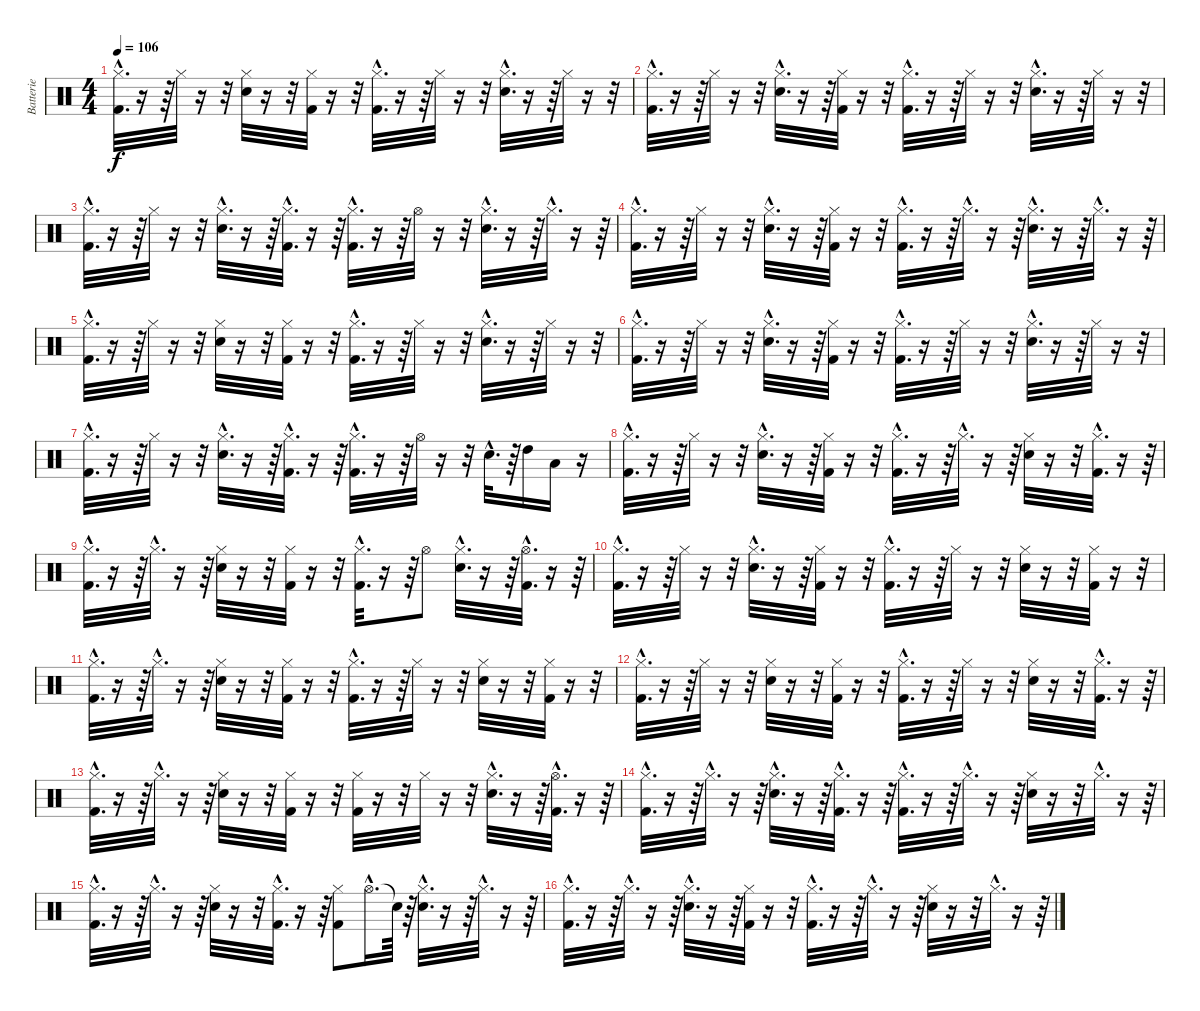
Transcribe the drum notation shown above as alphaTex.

\track ("Batterie" "Batterie") {instrument percussion}
\staff {score}
\articulation defaults
\ts (4 4)
\tempo 106
\clef neutral
\ks c
("Hi-Hat (closed)"{hac} "Kick (hit) 2"{hac}).32{d dy f} r.16 r.64 "Hi-Hat (closed)".32 r.16 r.32 ("Hi-Hat (closed)" "Snare (hit) 2").32 r.16 r.32 ("Hi-Hat (closed)" "Kick (hit) 2").32 r.16 r.32 ("Hi-Hat (closed)"{hac} "Kick (hit) 2"{hac}).32{d} r.16 r.64 "Hi-Hat (closed)".32 r.16 r.32 ("Hi-Hat (closed)"{hac} "Snare (hit) 2"{hac}).32{d} r.16 r.64 "Hi-Hat (closed)".32 r.16 r.32 |
("Hi-Hat (closed)"{hac} "Kick (hit) 2"{hac}).32{d} r.16 r.64 "Hi-Hat (closed)".32 r.16 r.32 ("Hi-Hat (closed)"{hac} "Snare (hit) 2"{hac}).32{d} r.16 r.64 ("Hi-Hat (closed)" "Kick (hit) 2").32 r.16 r.32 ("Hi-Hat (closed)"{hac} "Kick (hit) 2"{hac}).32{d} r.16 r.64 "Hi-Hat (closed)".32 r.16 r.32 ("Hi-Hat (closed)"{hac} "Snare (hit) 2"{hac}).32{d} r.16 r.64 "Hi-Hat (closed)".32 r.16 r.32 |
("Hi-Hat (closed)"{hac} "Kick (hit) 2"{hac}).32{d} r.16 r.64 "Hi-Hat (closed)".32 r.16 r.32 ("Hi-Hat (closed)"{hac} "Snare (hit) 2"{hac}).32{d} r.16 r.64 ("Hi-Hat (closed)"{hac} "Kick (hit) 2"{hac}).32{d} r.16 r.64 ("Hi-Hat (closed)"{hac} "Kick (hit) 2"{hac}).32{d} r.16 r.64 "Hi-Hat (open)".32 r.16 r.32 ("Hi-Hat (closed)"{hac} "Snare (hit) 2"{hac}).32{d} r.16 r.64 "Hi-Hat (closed)"{hac}.32{d} r.16 r.64 |
("Hi-Hat (closed)"{hac} "Kick (hit) 2"{hac}).32{d} r.16 r.64 "Hi-Hat (closed)".32 r.16 r.32 ("Hi-Hat (closed)"{hac} "Snare (hit) 2"{hac}).32{d} r.16 r.64 ("Hi-Hat (closed)" "Kick (hit) 2").32 r.16 r.32 ("Hi-Hat (closed)"{hac} "Kick (hit) 2"{hac}).32{d} r.16 r.64 "Hi-Hat (closed)"{hac}.32{d} r.16 r.64 ("Hi-Hat (closed)"{hac} "Snare (hit) 2"{hac}).32{d} r.16 r.64 "Hi-Hat (closed)"{hac}.32{d} r.16 r.64 |
("Hi-Hat (closed)"{hac} "Kick (hit) 2"{hac}).32{d} r.16 r.64 "Hi-Hat (closed)".32 r.16 r.32 ("Hi-Hat (closed)" "Snare (hit) 2").32 r.16 r.32 ("Hi-Hat (closed)" "Kick (hit) 2").32 r.16 r.32 ("Hi-Hat (closed)"{hac} "Kick (hit) 2"{hac}).32{d} r.16 r.64 "Hi-Hat (closed)".32 r.16 r.32 ("Hi-Hat (closed)"{hac} "Snare (hit) 2"{hac}).32{d} r.16 r.64 "Hi-Hat (closed)".32 r.16 r.32 |
("Hi-Hat (closed)"{hac} "Kick (hit) 2"{hac}).32{d} r.16 r.64 "Hi-Hat (closed)".32 r.16 r.32 ("Hi-Hat (closed)"{hac} "Snare (hit) 2"{hac}).32{d} r.16 r.64 ("Hi-Hat (closed)" "Kick (hit) 2").32 r.16 r.32 ("Hi-Hat (closed)"{hac} "Kick (hit) 2"{hac}).32{d} r.16 r.64 "Hi-Hat (closed)".32 r.16 r.32 ("Hi-Hat (closed)"{hac} "Snare (hit) 2"{hac}).32{d} r.16 r.64 "Hi-Hat (closed)".32 r.16 r.32 |
("Hi-Hat (closed)"{hac} "Kick (hit) 2"{hac}).32{d} r.16 r.64 "Hi-Hat (closed)".32 r.16 r.32 ("Hi-Hat (closed)"{hac} "Snare (hit) 2"{hac}).32{d} r.16 r.64 ("Hi-Hat (closed)"{hac} "Kick (hit) 2"{hac}).32{d} r.16 r.64 ("Hi-Hat (closed)"{hac} "Kick (hit) 2"{hac}).32{d} r.16 r.64 "Hi-Hat (open)".32 r.16 r.32 "Snare (hit) 2"{hac}.32{d} r.64 "High Tom (hit)".16 "Low Floor Tom (hit)".16 r.16 |
("Hi-Hat (closed)"{hac} "Kick (hit) 2"{hac}).32{d} r.16 r.64 "Hi-Hat (closed)".32 r.16 r.32 ("Hi-Hat (closed)"{hac} "Snare (hit) 2"{hac}).32{d} r.16 r.64 ("Hi-Hat (closed)" "Kick (hit) 2").32 r.16 r.32 ("Hi-Hat (closed)"{hac} "Kick (hit) 2"{hac}).32{d} r.16 r.64 "Hi-Hat (closed)"{hac}.32{d} r.16 r.64 ("Hi-Hat (closed)" "Snare (hit) 2").32 r.16 r.32 ("Hi-Hat (closed)"{hac} "Kick (hit) 2"{hac}).32{d} r.16 r.64 |
("Hi-Hat (closed)"{hac} "Kick (hit) 2"{hac}).32{d} r.16 r.64 "Hi-Hat (closed)"{hac}.32{d} r.16 r.64 ("Hi-Hat (closed)" "Snare (hit) 2").32 r.16 r.32 ("Hi-Hat (closed)" "Kick (hit) 2").32 r.16 r.32 ("Hi-Hat (closed)"{hac} "Kick (hit) 2"{hac}).32{d} r.16 r.64 "Hi-Hat (open)".8 ("Hi-Hat (closed)"{hac} "Snare (hit) 2"{hac}).32{d} r.16 r.64 ("Hi-Hat (open)"{hac} "Kick (hit) 2"{hac}).32{d} r.16 r.64 |
("Hi-Hat (closed)"{hac} "Kick (hit) 2"{hac}).32{d} r.16 r.64 "Hi-Hat (closed)".32 r.16 r.32 ("Hi-Hat (closed)"{hac} "Snare (hit) 2"{hac}).32{d} r.16 r.64 ("Hi-Hat (closed)" "Kick (hit) 2").32 r.16 r.32 ("Hi-Hat (closed)"{hac} "Kick (hit) 2"{hac}).32{d} r.16 r.64 "Hi-Hat (closed)".32 r.16 r.32 ("Hi-Hat (closed)" "Snare (hit) 2").32 r.16 r.32 ("Hi-Hat (closed)" "Kick (hit) 2").32 r.16 r.32 |
("Hi-Hat (closed)"{hac} "Kick (hit) 2"{hac}).32{d} r.16 r.64 "Hi-Hat (closed)"{hac}.32{d} r.16 r.64 ("Hi-Hat (closed)" "Snare (hit) 2").32 r.16 r.32 ("Hi-Hat (closed)" "Kick (hit) 2").32 r.16 r.32 ("Hi-Hat (closed)"{hac} "Kick (hit) 2"{hac}).32{d} r.16 r.64 "Hi-Hat (closed)".32 r.16 r.32 ("Hi-Hat (closed)" "Snare (hit) 2").32 r.16 r.32 ("Hi-Hat (closed)" "Kick (hit) 2").32 r.16 r.32 |
("Hi-Hat (closed)"{hac} "Kick (hit) 2"{hac}).32{d} r.16 r.64 "Hi-Hat (closed)".32 r.16 r.32 ("Hi-Hat (closed)" "Snare (hit) 2").32 r.16 r.32 ("Hi-Hat (closed)" "Kick (hit) 2").32 r.16 r.32 ("Hi-Hat (closed)"{hac} "Kick (hit) 2"{hac}).32{d} r.16 r.64 "Hi-Hat (closed)".32 r.16 r.32 ("Hi-Hat (closed)" "Snare (hit) 2").32 r.16 r.32 ("Hi-Hat (closed)"{hac} "Kick (hit) 2"{hac}).32{d} r.16 r.64 |
("Hi-Hat (closed)"{hac} "Kick (hit) 2"{hac}).32{d} r.16 r.64 "Hi-Hat (closed)"{hac}.32{d} r.16 r.64 ("Hi-Hat (closed)" "Snare (hit) 2").32 r.16 r.32 ("Hi-Hat (closed)" "Kick (hit) 2").32 r.16 r.32 ("Hi-Hat (closed)" "Kick (hit) 2").32 r.16 r.32 "Hi-Hat (closed)".32 r.16 r.32 ("Hi-Hat (closed)"{hac} "Snare (hit) 2"{hac}).32{d} r.16 r.64 ("Hi-Hat (open)"{hac} "Kick (hit) 2"{hac}).32{d} r.16 r.64 |
("Hi-Hat (closed)"{hac} "Kick (hit) 2"{hac}).32{d} r.16 r.64 "Hi-Hat (closed)"{hac}.32{d} r.16 r.64 ("Hi-Hat (closed)"{hac} "Snare (hit) 2"{hac}).32{d} r.16 r.64 ("Hi-Hat (closed)"{hac} "Kick (hit) 2"{hac}).32{d} r.16 r.64 ("Hi-Hat (closed)"{hac} "Kick (hit) 2"{hac}).32{d} r.16 r.64 "Hi-Hat (closed)"{hac}.32{d} r.16 r.64 ("Hi-Hat (closed)" "Snare (hit) 2").32 r.16 r.32 "Hi-Hat (closed)"{hac}.32{d} r.16 r.64 |
("Hi-Hat (closed)"{hac} "Kick (hit) 2"{hac}).32{d} r.16 r.64 "Hi-Hat (closed)"{hac}.32{d} r.16 r.64 ("Hi-Hat (closed)" "Snare (hit) 2").32 r.16 r.32 ("Hi-Hat (closed)"{hac} "Kick (hit) 2"{hac}).32{d} r.16 r.64 ("Hi-Hat (closed)" "Kick (hit) 2").8 "Hi-Hat (open)"{hac}.16{d} "Snare (hit)"{t}.64 r.64 ("Hi-Hat (closed)"{hac} "Snare (hit) 2"{hac}).32{d} r.16 r.64 "Hi-Hat (closed)"{hac}.32{d} r.16 r.64 |
("Hi-Hat (closed)"{hac} "Kick (hit) 2"{hac}).32{d} r.16 r.64 "Hi-Hat (closed)"{hac}.32{d} r.16 r.64 ("Hi-Hat (closed)"{hac} "Snare (hit) 2"{hac}).32{d} r.16 r.64 ("Hi-Hat (closed)" "Kick (hit) 2").32 r.16 r.32 ("Hi-Hat (closed)"{hac} "Kick (hit) 2"{hac}).32{d} r.16 r.64 "Hi-Hat (closed)"{hac}.32{d} r.16 r.64 ("Hi-Hat (closed)" "Snare (hit) 2").32 r.16 r.32 "Hi-Hat (closed)"{hac}.32{d} r.16 r.64
